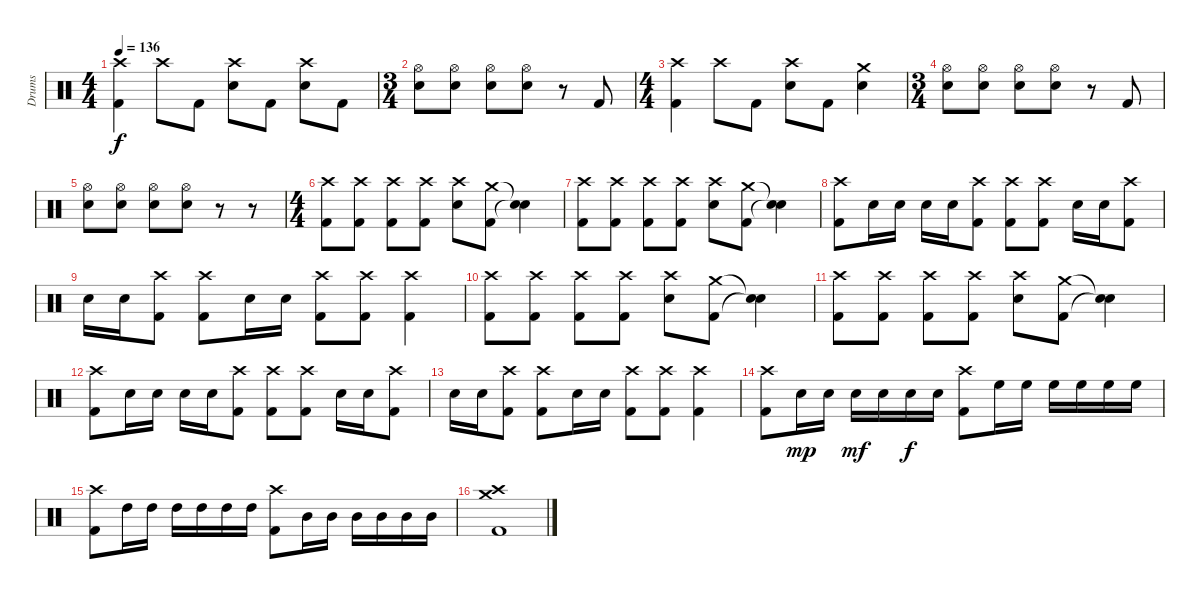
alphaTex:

\track ("Drums" "Drums") {instrument percussion}
\staff {score}
\articulation defaults
\ts (4 4)
\tempo 136
\clef neutral
\ks c
("Crash high (hit)" "Kick (hit) 2").4{dy f} "Crash high (hit)".8 "Kick (hit) 2".8 ("Crash high (hit)" "Electric Snare (hit)").8 "Kick (hit) 2".8 ("Crash high (hit)" "Electric Snare (hit)").8 "Kick (hit) 2".8 |
\ts (3 4)
("Hi-Hat (open)" "Electric Snare (hit)").8 ("Hi-Hat (open)" "Electric Snare (hit)").8 ("Hi-Hat (open)" "Electric Snare (hit)").8 ("Hi-Hat (open)" "Electric Snare (hit)").8 r.8 "Kick (hit) 2".8 |
\ts (4 4)
("Crash high (hit)" "Kick (hit) 2").4 "Crash high (hit)".8 "Kick (hit) 2".8 ("Crash high (hit)" "Electric Snare (hit)").8 "Kick (hit) 2".8 ("Crash medium (hit)" "Electric Snare (hit)").4 |
\ts (3 4)
("Hi-Hat (open)" "Electric Snare (hit)").8 ("Hi-Hat (open)" "Electric Snare (hit)").8 ("Hi-Hat (open)" "Electric Snare (hit)").8 ("Hi-Hat (open)" "Electric Snare (hit)").8 r.8 "Kick (hit) 2".8 |
("Hi-Hat (open)" "Electric Snare (hit)").8 ("Hi-Hat (open)" "Electric Snare (hit)").8 ("Hi-Hat (open)" "Electric Snare (hit)").8 ("Hi-Hat (open)" "Electric Snare (hit)").8 r.8 r.8 |
\ts (4 4)
("Crash high (hit)" "Kick (hit) 2").8 ("Crash high (hit)" "Kick (hit) 2").8 ("Crash high (hit)" "Kick (hit) 2").8 ("Crash high (hit)" "Kick (hit) 2").8 ("Crash high (hit)" "Electric Snare (hit)").8 ("Crash medium (hit)" "Kick (hit) 2").8 ("Snare (hit)"{t} "Snare (hit)"{t}).4 |
("Crash high (hit)" "Kick (hit) 2").8 ("Crash high (hit)" "Kick (hit) 2").8 ("Crash high (hit)" "Kick (hit) 2").8 ("Crash high (hit)" "Kick (hit) 2").8 ("Crash high (hit)" "Electric Snare (hit)").8 ("Crash medium (hit)" "Kick (hit) 2").8 ("Snare (hit)"{t} "Snare (hit)"{t}).4 |
("Crash high (hit)" "Kick (hit) 2").8 "Electric Snare (hit)".16 "Electric Snare (hit)".16 "Electric Snare (hit)".16 "Electric Snare (hit)".16 ("Crash high (hit)" "Kick (hit) 2").8 ("Crash high (hit)" "Kick (hit) 2").8 ("Crash high (hit)" "Kick (hit) 2").8 "Electric Snare (hit)".16 "Electric Snare (hit)".16 ("Crash high (hit)" "Kick (hit) 2").8 |
"Electric Snare (hit)".16 "Electric Snare (hit)".16 ("Crash high (hit)" "Kick (hit) 2").8 ("Crash high (hit)" "Kick (hit) 2").8 "Electric Snare (hit)".16 "Electric Snare (hit)".16 ("Crash high (hit)" "Kick (hit) 2").8 ("Crash high (hit)" "Kick (hit) 2").8 ("Crash high (hit)" "Kick (hit) 2").4 |
("Crash high (hit)" "Kick (hit) 2").8 ("Crash high (hit)" "Kick (hit) 2").8 ("Crash high (hit)" "Kick (hit) 2").8 ("Crash high (hit)" "Kick (hit) 2").8 ("Crash high (hit)" "Electric Snare (hit)").8 ("Crash medium (hit)" "Kick (hit) 2").8 ("Snare (hit)"{t} "Snare (hit)"{t}).4 |
("Crash high (hit)" "Kick (hit) 2").8 ("Crash high (hit)" "Kick (hit) 2").8 ("Crash high (hit)" "Kick (hit) 2").8 ("Crash high (hit)" "Kick (hit) 2").8 ("Crash high (hit)" "Electric Snare (hit)").8 ("Crash medium (hit)" "Kick (hit) 2").8 ("Snare (hit)"{t} "Snare (hit)"{t}).4 |
("Crash high (hit)" "Kick (hit) 2").8 "Electric Snare (hit)".16 "Electric Snare (hit)".16 "Electric Snare (hit)".16 "Electric Snare (hit)".16 ("Crash high (hit)" "Kick (hit) 2").8 ("Crash high (hit)" "Kick (hit) 2").8 ("Crash high (hit)" "Kick (hit) 2").8 "Electric Snare (hit)".16 "Electric Snare (hit)".16 ("Crash high (hit)" "Kick (hit) 2").8 |
"Electric Snare (hit)".16 "Electric Snare (hit)".16 ("Crash high (hit)" "Kick (hit) 2").8 ("Crash high (hit)" "Kick (hit) 2").8 "Electric Snare (hit)".16 "Electric Snare (hit)".16 ("Crash high (hit)" "Kick (hit) 2").8 ("Crash high (hit)" "Kick (hit) 2").8 ("Crash high (hit)" "Kick (hit) 2").4 |
("Crash high (hit)" "Kick (hit) 2").8 "Electric Snare (hit)".16{dy mp} "Electric Snare (hit)".16 "Electric Snare (hit)".16{dy mf} "Electric Snare (hit)".16 "Electric Snare (hit)".16{dy f} "Electric Snare (hit)".16 ("Crash high (hit)" "Kick (hit) 2").8 "High Floor Tom (hit)".16 "High Floor Tom (hit)".16 "High Floor Tom (hit)".16 "High Floor Tom (hit)".16 "High Floor Tom (hit)".16 "High Floor Tom (hit)".16 |
("Crash high (hit)" "Kick (hit) 2").8 "High Tom (hit)".16 "High Tom (hit)".16 "High Tom (hit)".16 "High Tom (hit)".16 "High Tom (hit)".16 "High Tom (hit)".16 ("Crash high (hit)" "Kick (hit) 2").8 "Mid Tom (hit)".16 "Mid Tom (hit)".16 "Mid Tom (hit)".16 "Mid Tom (hit)".16 "Mid Tom (hit)".16 "Mid Tom (hit)".16 |
("Crash high (hit)" "Crash medium (hit)" "Kick (hit) 2").1
